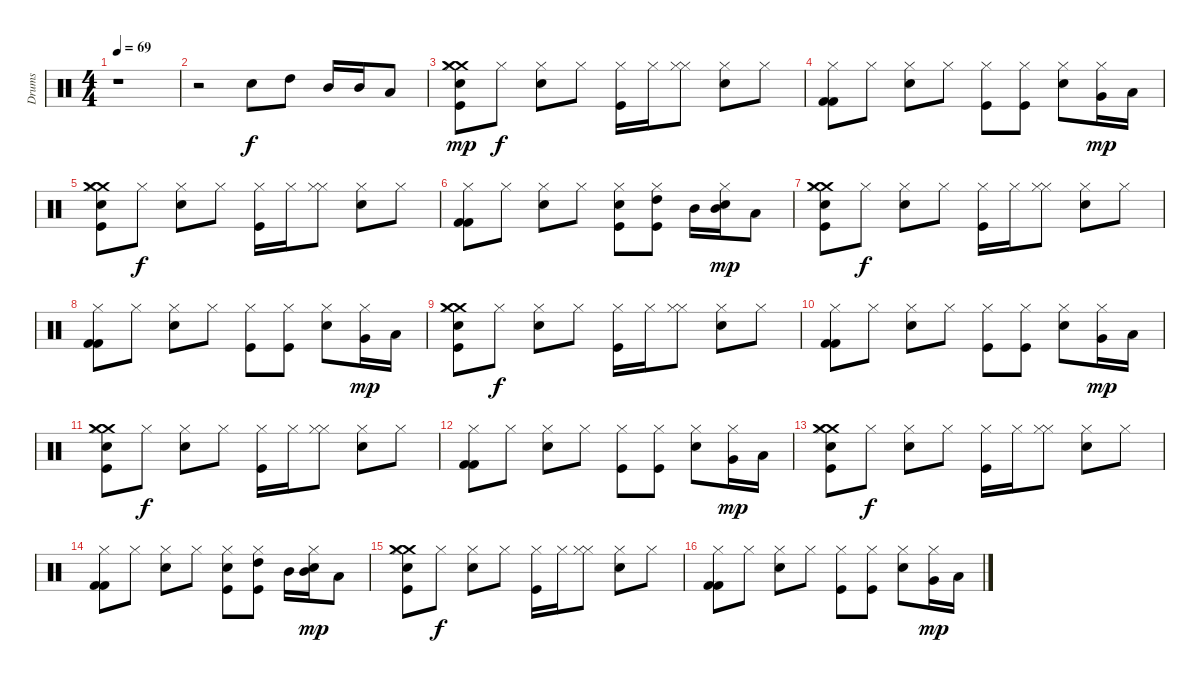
\track ("Drums" "Drums") {instrument percussion}
\staff {score}
\articulation defaults
\ts (4 4)
\tempo 69
\clef neutral
\ks c
r.1{dy mp} |
r.2 "Snare (hit) 2".8{dy f} "High Tom (hit)".8 "Mid Tom (hit)".16 "Mid Tom (hit)".16 "Low Tom (hit)".8 |
("Kick (hit)" "Crash medium (hit)" "Electric Snare (hit)" "Crash medium (hit)" "Hi-Hat (closed)").8{dy mp} "Hi-Hat (closed)".8{dy f} ("Snare (hit) 2" "Hi-Hat (closed)").8 "Hi-Hat (closed)".8 ("Kick (hit)" "Hi-Hat (closed)").16 "Hi-Hat (closed)".16 ("Hi-Hat (closed)" "Hi-Hat (closed)").8 ("Snare (hit) 2" "Hi-Hat (closed)").8 "Hi-Hat (closed)".8 |
("Hi-Hat (closed)" "Kick (hit) 2" "Kick (hit) 2").8 "Hi-Hat (closed)".8 ("Snare (hit) 2" "Hi-Hat (closed)").8 "Hi-Hat (closed)".8 ("Kick (hit)" "Hi-Hat (closed)").8 ("Kick (hit)" "Hi-Hat (closed)").8 ("Snare (hit) 2" "Hi-Hat (closed)").8 ("Very Low Tom (hit)" "Hi-Hat (closed)").16{dy mp} "Low Floor Tom (hit)".16 |
("Kick (hit)" "Crash medium (hit)" "Electric Snare (hit)" "Crash medium (hit)" "Hi-Hat (closed)").8 "Hi-Hat (closed)".8{dy f} ("Snare (hit) 2" "Hi-Hat (closed)").8 "Hi-Hat (closed)".8 ("Kick (hit)" "Hi-Hat (closed)").16 "Hi-Hat (closed)".16 ("Hi-Hat (closed)" "Hi-Hat (closed)").8 ("Snare (hit) 2" "Hi-Hat (closed)").8 "Hi-Hat (closed)".8 |
("Hi-Hat (closed)" "Kick (hit) 2" "Kick (hit) 2").8 "Hi-Hat (closed)".8 ("Snare (hit) 2" "Hi-Hat (closed)").8 "Hi-Hat (closed)".8 ("Kick (hit)" "Hi-Hat (closed)" "Snare (hit) 2").8 ("Kick (hit)" "Hi-Hat (closed)" "High Tom (hit)").8 "Mid Tom (hit)".16 ("Mid Tom (hit)" "Hi-Hat (closed)" "Snare (hit) 2").16{dy mp} "Low Tom (hit)".8 |
("Kick (hit)" "Crash medium (hit)" "Electric Snare (hit)" "Crash medium (hit)" "Hi-Hat (closed)").8 "Hi-Hat (closed)".8{dy f} ("Snare (hit) 2" "Hi-Hat (closed)").8 "Hi-Hat (closed)".8 ("Kick (hit)" "Hi-Hat (closed)").16 "Hi-Hat (closed)".16 ("Hi-Hat (closed)" "Hi-Hat (closed)").8 ("Snare (hit) 2" "Hi-Hat (closed)").8 "Hi-Hat (closed)".8 |
("Hi-Hat (closed)" "Kick (hit) 2" "Kick (hit) 2").8 "Hi-Hat (closed)".8 ("Snare (hit) 2" "Hi-Hat (closed)").8 "Hi-Hat (closed)".8 ("Kick (hit)" "Hi-Hat (closed)").8 ("Kick (hit)" "Hi-Hat (closed)").8 ("Snare (hit) 2" "Hi-Hat (closed)").8 ("Very Low Tom (hit)" "Hi-Hat (closed)").16{dy mp} "Low Floor Tom (hit)".16 |
("Kick (hit)" "Crash medium (hit)" "Electric Snare (hit)" "Crash medium (hit)" "Hi-Hat (closed)").8 "Hi-Hat (closed)".8{dy f} ("Snare (hit) 2" "Hi-Hat (closed)").8 "Hi-Hat (closed)".8 ("Kick (hit)" "Hi-Hat (closed)").16 "Hi-Hat (closed)".16 ("Hi-Hat (closed)" "Hi-Hat (closed)").8 ("Snare (hit) 2" "Hi-Hat (closed)").8 "Hi-Hat (closed)".8 |
("Hi-Hat (closed)" "Kick (hit) 2" "Kick (hit) 2").8 "Hi-Hat (closed)".8 ("Snare (hit) 2" "Hi-Hat (closed)").8 "Hi-Hat (closed)".8 ("Kick (hit)" "Hi-Hat (closed)").8 ("Kick (hit)" "Hi-Hat (closed)").8 ("Snare (hit) 2" "Hi-Hat (closed)").8 ("Very Low Tom (hit)" "Hi-Hat (closed)").16{dy mp} "Low Floor Tom (hit)".16 |
("Kick (hit)" "Crash medium (hit)" "Electric Snare (hit)" "Crash medium (hit)" "Hi-Hat (closed)").8 "Hi-Hat (closed)".8{dy f} ("Snare (hit) 2" "Hi-Hat (closed)").8 "Hi-Hat (closed)".8 ("Kick (hit)" "Hi-Hat (closed)").16 "Hi-Hat (closed)".16 ("Hi-Hat (closed)" "Hi-Hat (closed)").8 ("Snare (hit) 2" "Hi-Hat (closed)").8 "Hi-Hat (closed)".8 |
("Hi-Hat (closed)" "Kick (hit) 2" "Kick (hit) 2").8 "Hi-Hat (closed)".8 ("Snare (hit) 2" "Hi-Hat (closed)").8 "Hi-Hat (closed)".8 ("Kick (hit)" "Hi-Hat (closed)").8 ("Kick (hit)" "Hi-Hat (closed)").8 ("Snare (hit) 2" "Hi-Hat (closed)").8 ("Very Low Tom (hit)" "Hi-Hat (closed)").16{dy mp} "Low Floor Tom (hit)".16 |
("Kick (hit)" "Crash medium (hit)" "Electric Snare (hit)" "Crash medium (hit)" "Hi-Hat (closed)").8 "Hi-Hat (closed)".8{dy f} ("Snare (hit) 2" "Hi-Hat (closed)").8 "Hi-Hat (closed)".8 ("Kick (hit)" "Hi-Hat (closed)").16 "Hi-Hat (closed)".16 ("Hi-Hat (closed)" "Hi-Hat (closed)").8 ("Snare (hit) 2" "Hi-Hat (closed)").8 "Hi-Hat (closed)".8 |
("Hi-Hat (closed)" "Kick (hit) 2" "Kick (hit) 2").8 "Hi-Hat (closed)".8 ("Snare (hit) 2" "Hi-Hat (closed)").8 "Hi-Hat (closed)".8 ("Kick (hit)" "Hi-Hat (closed)" "Snare (hit) 2").8 ("Kick (hit)" "Hi-Hat (closed)" "High Tom (hit)").8 "Mid Tom (hit)".16 ("Mid Tom (hit)" "Hi-Hat (closed)" "Snare (hit) 2").16{dy mp} "Low Tom (hit)".8 |
("Kick (hit)" "Crash medium (hit)" "Electric Snare (hit)" "Crash medium (hit)" "Hi-Hat (closed)").8 "Hi-Hat (closed)".8{dy f} ("Snare (hit) 2" "Hi-Hat (closed)").8 "Hi-Hat (closed)".8 ("Kick (hit)" "Hi-Hat (closed)").16 "Hi-Hat (closed)".16 ("Hi-Hat (closed)" "Hi-Hat (closed)").8 ("Snare (hit) 2" "Hi-Hat (closed)").8 "Hi-Hat (closed)".8 |
("Hi-Hat (closed)" "Kick (hit) 2" "Kick (hit) 2").8 "Hi-Hat (closed)".8 ("Snare (hit) 2" "Hi-Hat (closed)").8 "Hi-Hat (closed)".8 ("Kick (hit)" "Hi-Hat (closed)").8 ("Kick (hit)" "Hi-Hat (closed)").8 ("Snare (hit) 2" "Hi-Hat (closed)").8 ("Very Low Tom (hit)" "Hi-Hat (closed)").16{dy mp} "Low Floor Tom (hit)".16
